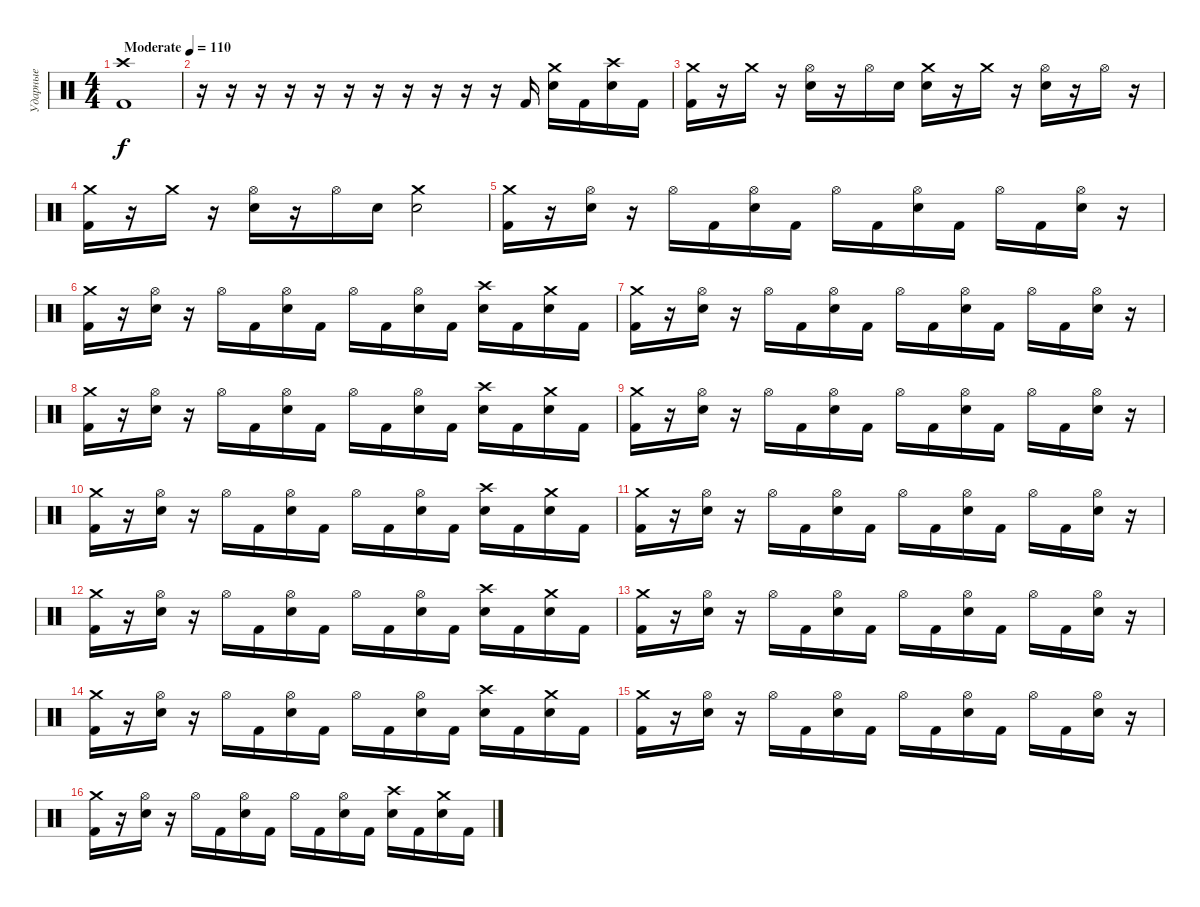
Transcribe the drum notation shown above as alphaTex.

\track ("Ударные" "Ударные") {instrument percussion}
\staff {score}
\articulation defaults
\ts (4 4)
\tempo (110 "Moderate")
\clef neutral
\ks c
("Crash high (hit)" "Kick (hit) 2").1{dy f} |
r.16 r.16 r.16 r.16 r.16 r.16 r.16 r.16 r.16 r.16 r.16 "Kick (hit) 2".16 ("Crash medium (hit)" "Electric Snare (hit)").16 "Kick (hit) 2".16 ("Crash high (hit)" "Electric Snare (hit)").16 "Kick (hit) 2".16 |
("Crash medium (hit)" "Kick (hit) 2").16 r.16 "Crash medium (hit)".16 r.16 ("Hi-Hat (open)" "Electric Snare (hit)").16 r.16 "Hi-Hat (open)".16 "Electric Snare (hit)".16 ("Crash medium (hit)" "Electric Snare (hit)").16 r.16 "Crash medium (hit)".16 r.16 ("Hi-Hat (open)" "Electric Snare (hit)").16 r.16 "Hi-Hat (open)".16 r.16 |
("Crash medium (hit)" "Kick (hit) 2").16 r.16 "Crash medium (hit)".16 r.16 ("Hi-Hat (open)" "Electric Snare (hit)").16 r.16 "Hi-Hat (open)".16 "Electric Snare (hit)".16 ("Crash medium (hit)" "Electric Snare (hit)").2 |
("Crash medium (hit)" "Kick (hit) 2").16 r.16 ("Hi-Hat (open)" "Electric Snare (hit)").16 r.16 "Hi-Hat (open)".16 "Kick (hit) 2".16 ("Hi-Hat (open)" "Electric Snare (hit)").16 "Kick (hit) 2".16 "Hi-Hat (open)".16 "Kick (hit) 2".16 ("Hi-Hat (open)" "Electric Snare (hit)").16 "Kick (hit) 2".16 "Hi-Hat (open)".16 "Kick (hit) 2".16 ("Hi-Hat (open)" "Electric Snare (hit)").16 r.16 |
("Crash medium (hit)" "Kick (hit) 2").16 r.16 ("Hi-Hat (open)" "Electric Snare (hit)").16 r.16 "Hi-Hat (open)".16 "Kick (hit) 2".16 ("Hi-Hat (open)" "Electric Snare (hit)").16 "Kick (hit) 2".16 "Hi-Hat (open)".16 "Kick (hit) 2".16 ("Hi-Hat (open)" "Electric Snare (hit)").16 "Kick (hit) 2".16 ("Crash high (hit)" "Electric Snare (hit)").16 "Kick (hit) 2".16 ("Crash medium (hit)" "Electric Snare (hit)").16 "Kick (hit) 2".16 |
("Crash medium (hit)" "Kick (hit) 2").16 r.16 ("Hi-Hat (open)" "Electric Snare (hit)").16 r.16 "Hi-Hat (open)".16 "Kick (hit) 2".16 ("Hi-Hat (open)" "Electric Snare (hit)").16 "Kick (hit) 2".16 "Hi-Hat (open)".16 "Kick (hit) 2".16 ("Hi-Hat (open)" "Electric Snare (hit)").16 "Kick (hit) 2".16 "Hi-Hat (open)".16 "Kick (hit) 2".16 ("Hi-Hat (open)" "Electric Snare (hit)").16 r.16 |
("Crash medium (hit)" "Kick (hit) 2").16 r.16 ("Hi-Hat (open)" "Electric Snare (hit)").16 r.16 "Hi-Hat (open)".16 "Kick (hit) 2".16 ("Hi-Hat (open)" "Electric Snare (hit)").16 "Kick (hit) 2".16 "Hi-Hat (open)".16 "Kick (hit) 2".16 ("Hi-Hat (open)" "Electric Snare (hit)").16 "Kick (hit) 2".16 ("Crash high (hit)" "Electric Snare (hit)").16 "Kick (hit) 2".16 ("Crash medium (hit)" "Electric Snare (hit)").16 "Kick (hit) 2".16 |
("Crash medium (hit)" "Kick (hit) 2").16 r.16 ("Hi-Hat (open)" "Electric Snare (hit)").16 r.16 "Hi-Hat (open)".16 "Kick (hit) 2".16 ("Hi-Hat (open)" "Electric Snare (hit)").16 "Kick (hit) 2".16 "Hi-Hat (open)".16 "Kick (hit) 2".16 ("Hi-Hat (open)" "Electric Snare (hit)").16 "Kick (hit) 2".16 "Hi-Hat (open)".16 "Kick (hit) 2".16 ("Hi-Hat (open)" "Electric Snare (hit)").16 r.16 |
("Crash medium (hit)" "Kick (hit) 2").16 r.16 ("Hi-Hat (open)" "Electric Snare (hit)").16 r.16 "Hi-Hat (open)".16 "Kick (hit) 2".16 ("Hi-Hat (open)" "Electric Snare (hit)").16 "Kick (hit) 2".16 "Hi-Hat (open)".16 "Kick (hit) 2".16 ("Hi-Hat (open)" "Electric Snare (hit)").16 "Kick (hit) 2".16 ("Crash high (hit)" "Electric Snare (hit)").16 "Kick (hit) 2".16 ("Crash medium (hit)" "Electric Snare (hit)").16 "Kick (hit) 2".16 |
("Crash medium (hit)" "Kick (hit) 2").16 r.16 ("Hi-Hat (open)" "Electric Snare (hit)").16 r.16 "Hi-Hat (open)".16 "Kick (hit) 2".16 ("Hi-Hat (open)" "Electric Snare (hit)").16 "Kick (hit) 2".16 "Hi-Hat (open)".16 "Kick (hit) 2".16 ("Hi-Hat (open)" "Electric Snare (hit)").16 "Kick (hit) 2".16 "Hi-Hat (open)".16 "Kick (hit) 2".16 ("Hi-Hat (open)" "Electric Snare (hit)").16 r.16 |
("Crash medium (hit)" "Kick (hit) 2").16 r.16 ("Hi-Hat (open)" "Electric Snare (hit)").16 r.16 "Hi-Hat (open)".16 "Kick (hit) 2".16 ("Hi-Hat (open)" "Electric Snare (hit)").16 "Kick (hit) 2".16 "Hi-Hat (open)".16 "Kick (hit) 2".16 ("Hi-Hat (open)" "Electric Snare (hit)").16 "Kick (hit) 2".16 ("Crash high (hit)" "Electric Snare (hit)").16 "Kick (hit) 2".16 ("Crash medium (hit)" "Electric Snare (hit)").16 "Kick (hit) 2".16 |
("Crash medium (hit)" "Kick (hit) 2").16 r.16 ("Hi-Hat (open)" "Electric Snare (hit)").16 r.16 "Hi-Hat (open)".16 "Kick (hit) 2".16 ("Hi-Hat (open)" "Electric Snare (hit)").16 "Kick (hit) 2".16 "Hi-Hat (open)".16 "Kick (hit) 2".16 ("Hi-Hat (open)" "Electric Snare (hit)").16 "Kick (hit) 2".16 "Hi-Hat (open)".16 "Kick (hit) 2".16 ("Hi-Hat (open)" "Electric Snare (hit)").16 r.16 |
("Crash medium (hit)" "Kick (hit) 2").16 r.16 ("Hi-Hat (open)" "Electric Snare (hit)").16 r.16 "Hi-Hat (open)".16 "Kick (hit) 2".16 ("Hi-Hat (open)" "Electric Snare (hit)").16 "Kick (hit) 2".16 "Hi-Hat (open)".16 "Kick (hit) 2".16 ("Hi-Hat (open)" "Electric Snare (hit)").16 "Kick (hit) 2".16 ("Crash high (hit)" "Electric Snare (hit)").16 "Kick (hit) 2".16 ("Crash medium (hit)" "Electric Snare (hit)").16 "Kick (hit) 2".16 |
("Crash medium (hit)" "Kick (hit) 2").16 r.16 ("Hi-Hat (open)" "Electric Snare (hit)").16 r.16 "Hi-Hat (open)".16 "Kick (hit) 2".16 ("Hi-Hat (open)" "Electric Snare (hit)").16 "Kick (hit) 2".16 "Hi-Hat (open)".16 "Kick (hit) 2".16 ("Hi-Hat (open)" "Electric Snare (hit)").16 "Kick (hit) 2".16 "Hi-Hat (open)".16 "Kick (hit) 2".16 ("Hi-Hat (open)" "Electric Snare (hit)").16 r.16 |
("Crash medium (hit)" "Kick (hit) 2").16 r.16 ("Hi-Hat (open)" "Electric Snare (hit)").16 r.16 "Hi-Hat (open)".16 "Kick (hit) 2".16 ("Hi-Hat (open)" "Electric Snare (hit)").16 "Kick (hit) 2".16 "Hi-Hat (open)".16 "Kick (hit) 2".16 ("Hi-Hat (open)" "Electric Snare (hit)").16 "Kick (hit) 2".16 ("Crash high (hit)" "Electric Snare (hit)").16 "Kick (hit) 2".16 ("Crash medium (hit)" "Electric Snare (hit)").16 "Kick (hit) 2".16
